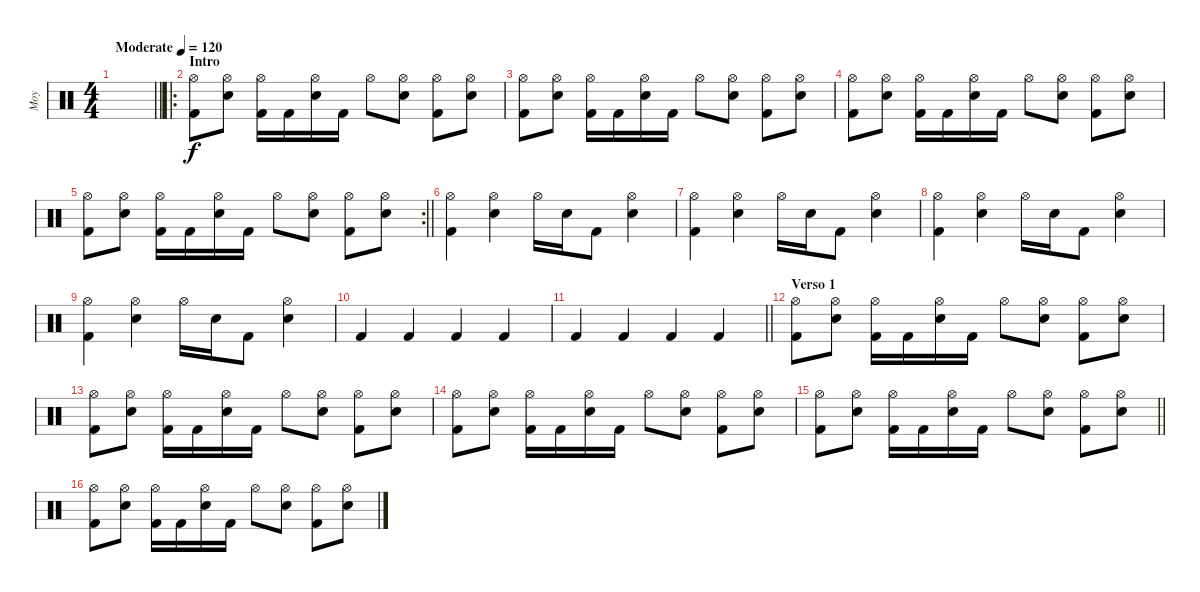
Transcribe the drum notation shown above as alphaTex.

\track ("Moy" "Moy") {instrument percussion}
\staff {score}
\articulation defaults
\ts (4 4)
\tempo (120 "Moderate")
\clef neutral
\barLineRight lightlight
\ks c
|
\ro
\section ("" "Intro")
("Hi-Hat (open)" "Kick (hit) 2").8 ("Hi-Hat (open)" "Electric Snare (hit)").8 ("Hi-Hat (open)" "Kick (hit) 2").16 "Kick (hit) 2".16 ("Hi-Hat (open)" "Electric Snare (hit)").16 "Kick (hit) 2".16 "Hi-Hat (open)".8 ("Hi-Hat (open)" "Electric Snare (hit)").8 ("Hi-Hat (open)" "Kick (hit) 2").8 ("Hi-Hat (open)" "Electric Snare (hit)").8 |
("Hi-Hat (open)" "Kick (hit) 2").8 ("Hi-Hat (open)" "Electric Snare (hit)").8 ("Hi-Hat (open)" "Kick (hit) 2").16 "Kick (hit) 2".16 ("Hi-Hat (open)" "Electric Snare (hit)").16 "Kick (hit) 2".16 "Hi-Hat (open)".8 ("Hi-Hat (open)" "Electric Snare (hit)").8 ("Hi-Hat (open)" "Kick (hit) 2").8 ("Hi-Hat (open)" "Electric Snare (hit)").8 |
("Hi-Hat (open)" "Kick (hit) 2").8 ("Hi-Hat (open)" "Electric Snare (hit)").8 ("Hi-Hat (open)" "Kick (hit) 2").16 "Kick (hit) 2".16 ("Hi-Hat (open)" "Electric Snare (hit)").16 "Kick (hit) 2".16 "Hi-Hat (open)".8 ("Hi-Hat (open)" "Electric Snare (hit)").8 ("Hi-Hat (open)" "Kick (hit) 2").8 ("Hi-Hat (open)" "Electric Snare (hit)").8 |
\rc 2
\barLineRight lightlight
("Hi-Hat (open)" "Kick (hit) 2").8 ("Hi-Hat (open)" "Electric Snare (hit)").8 ("Hi-Hat (open)" "Kick (hit) 2").16 "Kick (hit) 2".16 ("Hi-Hat (open)" "Electric Snare (hit)").16 "Kick (hit) 2".16 "Hi-Hat (open)".8 ("Hi-Hat (open)" "Electric Snare (hit)").8 ("Hi-Hat (open)" "Kick (hit) 2").8 ("Hi-Hat (open)" "Electric Snare (hit)").8 |
\section ("" "")
("Hi-Hat (open)" "Kick (hit) 2").4 ("Hi-Hat (open)" "Electric Snare (hit)").4 "Hi-Hat (open)".16 "Electric Snare (hit)".16 "Kick (hit) 2".8 ("Hi-Hat (open)" "Electric Snare (hit)").4 |
("Hi-Hat (open)" "Kick (hit) 2").4 ("Hi-Hat (open)" "Electric Snare (hit)").4 "Hi-Hat (open)".16 "Electric Snare (hit)".16 "Kick (hit) 2".8 ("Hi-Hat (open)" "Electric Snare (hit)").4 |
("Hi-Hat (open)" "Kick (hit) 2").4 ("Hi-Hat (open)" "Electric Snare (hit)").4 "Hi-Hat (open)".16 "Electric Snare (hit)".16 "Kick (hit) 2".8 ("Hi-Hat (open)" "Electric Snare (hit)").4 |
("Hi-Hat (open)" "Kick (hit) 2").4 ("Hi-Hat (open)" "Electric Snare (hit)").4 "Hi-Hat (open)".16 "Electric Snare (hit)".16 "Kick (hit) 2".8 ("Hi-Hat (open)" "Electric Snare (hit)").4 |
"Kick (hit) 2".4 "Kick (hit) 2".4 "Kick (hit) 2".4 "Kick (hit) 2".4 |
\barLineRight lightlight "Kick (hit) 2".4 "Kick (hit) 2".4 "Kick (hit) 2".4 "Kick (hit) 2".4
|
\section ("" "Verso 1")
("Hi-Hat (open)" "Kick (hit) 2").8 ("Hi-Hat (open)" "Electric Snare (hit)").8 ("Hi-Hat (open)" "Kick (hit) 2").16 "Kick (hit) 2".16 ("Hi-Hat (open)" "Electric Snare (hit)").16 "Kick (hit) 2".16 "Hi-Hat (open)".8 ("Hi-Hat (open)" "Electric Snare (hit)").8 ("Hi-Hat (open)" "Kick (hit) 2").8 ("Hi-Hat (open)" "Electric Snare (hit)").8 |
("Hi-Hat (open)" "Kick (hit) 2").8 ("Hi-Hat (open)" "Electric Snare (hit)").8 ("Hi-Hat (open)" "Kick (hit) 2").16 "Kick (hit) 2".16 ("Hi-Hat (open)" "Electric Snare (hit)").16 "Kick (hit) 2".16 "Hi-Hat (open)".8 ("Hi-Hat (open)" "Electric Snare (hit)").8 ("Hi-Hat (open)" "Kick (hit) 2").8 ("Hi-Hat (open)" "Electric Snare (hit)").8 |
("Hi-Hat (open)" "Kick (hit) 2").8 ("Hi-Hat (open)" "Electric Snare (hit)").8 ("Hi-Hat (open)" "Kick (hit) 2").16 "Kick (hit) 2".16 ("Hi-Hat (open)" "Electric Snare (hit)").16 "Kick (hit) 2".16 "Hi-Hat (open)".8 ("Hi-Hat (open)" "Electric Snare (hit)").8 ("Hi-Hat (open)" "Kick (hit) 2").8 ("Hi-Hat (open)" "Electric Snare (hit)").8 |
\barLineRight lightlight
("Hi-Hat (open)" "Kick (hit) 2").8 ("Hi-Hat (open)" "Electric Snare (hit)").8 ("Hi-Hat (open)" "Kick (hit) 2").16 "Kick (hit) 2".16 ("Hi-Hat (open)" "Electric Snare (hit)").16 "Kick (hit) 2".16 "Hi-Hat (open)".8 ("Hi-Hat (open)" "Electric Snare (hit)").8 ("Hi-Hat (open)" "Kick (hit) 2").8 ("Hi-Hat (open)" "Electric Snare (hit)").8 |
\section ("" "")
("Hi-Hat (open)" "Kick (hit) 2").8 ("Hi-Hat (open)" "Electric Snare (hit)").8 ("Hi-Hat (open)" "Kick (hit) 2").16 "Kick (hit) 2".16 ("Hi-Hat (open)" "Electric Snare (hit)").16 "Kick (hit) 2".16 "Hi-Hat (open)".8 ("Hi-Hat (open)" "Electric Snare (hit)").8 ("Hi-Hat (open)" "Kick (hit) 2").8 ("Hi-Hat (open)" "Electric Snare (hit)").8
